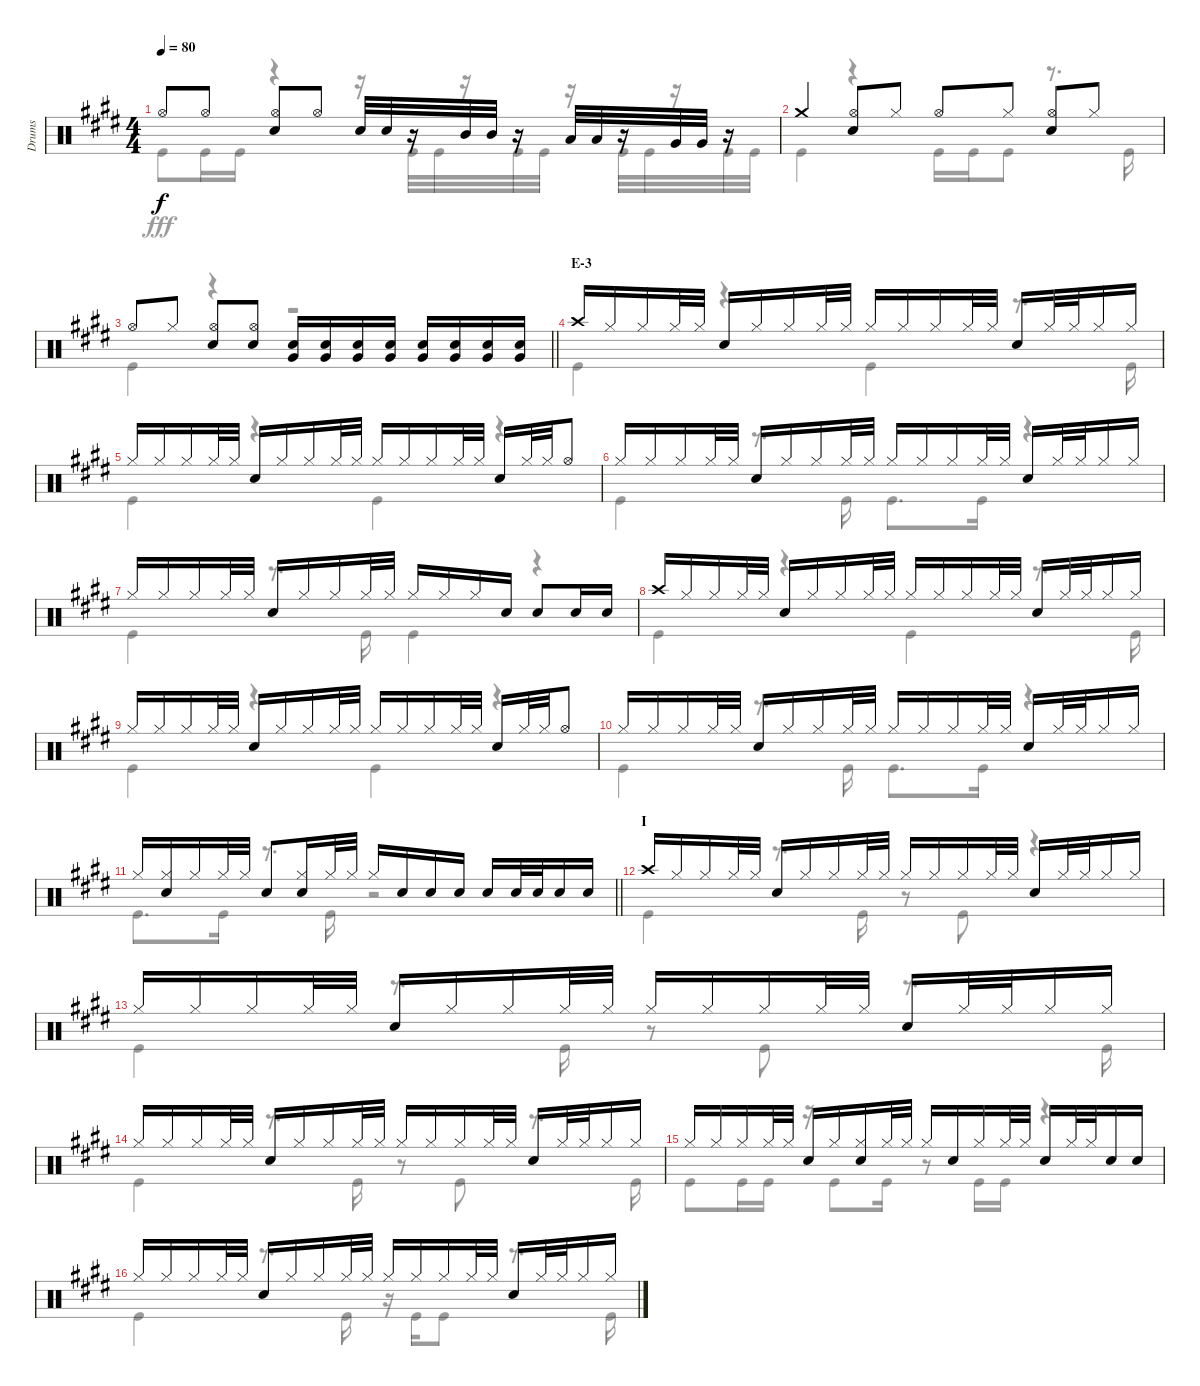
\track ("Drums" "Drums") {instrument percussion}
\staff {score}
\articulation defaults
\voice
\ts (4 4)
\tempo 80
\clef neutral
\ks e "Hi-Hat (open)".8{dy f} "Hi-Hat (open)".8
("Hi-Hat (open)" "Snare (hit) 2").8 "Hi-Hat (open)".8 "Snare (hit) 2".32 "Snare (hit) 2".32 r.16 "Mid Tom (hit)".32 "Mid Tom (hit)".32 r.16 "Low Tom (hit)".32 "Low Tom (hit)".32 r.16 "Very Low Tom (hit)".32 "Very Low Tom (hit)".32 r.16 |
"Crash medium (hit)".4 ("Hi-Hat (open)" "Snare (hit) 2").8 "Hi-Hat (closed)".8 "Hi-Hat (open)".8 "Hi-Hat (closed)".8 ("Hi-Hat (open)" "Snare (hit) 2").8 "Hi-Hat (closed)".8 |
\barLineRight lightlight "Hi-Hat (open)".8 "Hi-Hat (closed)".8
("Hi-Hat (open)" "Snare (hit) 2").8 ("Hi-Hat (open)" "Snare (hit) 2").8 ("Snare (hit) 2" "Very Low Tom (hit)").16 ("Snare (hit) 2" "Very Low Tom (hit)").16 ("Snare (hit) 2" "Very Low Tom (hit)").16 ("Snare (hit) 2" "Very Low Tom (hit)").16 ("Snare (hit) 2" "Very Low Tom (hit)").16 ("Snare (hit) 2" "Very Low Tom (hit)").16 ("Snare (hit) 2" "Very Low Tom (hit)").16 ("Snare (hit) 2" "Very Low Tom (hit)").16 |
\section ("" "E-3")
"Crash high (hit)".16 "Hi-Hat (closed)".16 "Hi-Hat (closed)".16 "Hi-Hat (closed)".32 "Hi-Hat (closed)".32 "Snare (hit) 2".16 "Hi-Hat (closed)".16 "Hi-Hat (closed)".16 "Hi-Hat (closed)".32 "Hi-Hat (closed)".32 "Hi-Hat (closed)".16 "Hi-Hat (closed)".16 "Hi-Hat (closed)".16 "Hi-Hat (closed)".32 "Hi-Hat (closed)".32 "Snare (hit) 2".16 "Hi-Hat (closed)".32 "Hi-Hat (closed)".32 "Hi-Hat (closed)".16 "Hi-Hat (closed)".16 |
"Hi-Hat (closed)".16 "Hi-Hat (closed)".16 "Hi-Hat (closed)".16 "Hi-Hat (closed)".32 "Hi-Hat (closed)".32 "Snare (hit) 2".16 "Hi-Hat (closed)".16 "Hi-Hat (closed)".16 "Hi-Hat (closed)".32 "Hi-Hat (closed)".32 "Hi-Hat (closed)".16 "Hi-Hat (closed)".16 "Hi-Hat (closed)".16 "Hi-Hat (closed)".32 "Hi-Hat (closed)".32 "Snare (hit) 2".16 "Hi-Hat (closed)".32 "Hi-Hat (closed)".32 "Hi-Hat (open)".8 |
"Hi-Hat (closed)".16 "Hi-Hat (closed)".16 "Hi-Hat (closed)".16 "Hi-Hat (closed)".32 "Hi-Hat (closed)".32 "Snare (hit) 2".16 "Hi-Hat (closed)".16 "Hi-Hat (closed)".16 "Hi-Hat (closed)".32 "Hi-Hat (closed)".32 "Hi-Hat (closed)".16 "Hi-Hat (closed)".16 "Hi-Hat (closed)".16 "Hi-Hat (closed)".32 "Hi-Hat (closed)".32 "Snare (hit) 2".16 "Hi-Hat (closed)".32 "Hi-Hat (closed)".32 "Hi-Hat (closed)".16 "Hi-Hat (closed)".16 |
"Hi-Hat (closed)".16 "Hi-Hat (closed)".16 "Hi-Hat (closed)".16 "Hi-Hat (closed)".32 "Hi-Hat (closed)".32 "Snare (hit) 2".16 "Hi-Hat (closed)".16 "Hi-Hat (closed)".16 "Hi-Hat (closed)".32 "Hi-Hat (closed)".32 "Hi-Hat (closed)".16 "Hi-Hat (closed)".16 "Hi-Hat (closed)".16 "Snare (hit) 2".16 "Snare (hit) 2".8 "Snare (hit) 2".16 "Snare (hit) 2".16 |
"Crash high (hit)".16 "Hi-Hat (closed)".16 "Hi-Hat (closed)".16 "Hi-Hat (closed)".32 "Hi-Hat (closed)".32 "Snare (hit) 2".16 "Hi-Hat (closed)".16 "Hi-Hat (closed)".16 "Hi-Hat (closed)".32 "Hi-Hat (closed)".32 "Hi-Hat (closed)".16 "Hi-Hat (closed)".16 "Hi-Hat (closed)".16 "Hi-Hat (closed)".32 "Hi-Hat (closed)".32 "Snare (hit) 2".16 "Hi-Hat (closed)".32 "Hi-Hat (closed)".32 "Hi-Hat (closed)".16 "Hi-Hat (closed)".16 |
"Hi-Hat (closed)".16 "Hi-Hat (closed)".16 "Hi-Hat (closed)".16 "Hi-Hat (closed)".32 "Hi-Hat (closed)".32 "Snare (hit) 2".16 "Hi-Hat (closed)".16 "Hi-Hat (closed)".16 "Hi-Hat (closed)".32 "Hi-Hat (closed)".32 "Hi-Hat (closed)".16 "Hi-Hat (closed)".16 "Hi-Hat (closed)".16 "Hi-Hat (closed)".32 "Hi-Hat (closed)".32 "Snare (hit) 2".16 "Hi-Hat (closed)".32 "Hi-Hat (closed)".32 "Hi-Hat (open)".8 |
"Hi-Hat (closed)".16 "Hi-Hat (closed)".16 "Hi-Hat (closed)".16 "Hi-Hat (closed)".32 "Hi-Hat (closed)".32 "Snare (hit) 2".16 "Hi-Hat (closed)".16 "Hi-Hat (closed)".16 "Hi-Hat (closed)".32 "Hi-Hat (closed)".32 "Hi-Hat (closed)".16 "Hi-Hat (closed)".16 "Hi-Hat (closed)".16 "Hi-Hat (closed)".32 "Hi-Hat (closed)".32 "Snare (hit) 2".16 "Hi-Hat (closed)".32 "Hi-Hat (closed)".32 "Hi-Hat (closed)".16 "Hi-Hat (closed)".16 |
\barLineRight lightlight "Hi-Hat (closed)".16
("Hi-Hat (closed)" "Snare (hit) 2").16 "Hi-Hat (closed)".16 "Hi-Hat (closed)".32 "Hi-Hat (closed)".32 "Snare (hit) 2".8 ("Hi-Hat (closed)" "Snare (hit) 2").16 "Hi-Hat (closed)".32 "Hi-Hat (closed)".32 "Hi-Hat (closed)".16 "Snare (hit) 2".16 "Snare (hit) 2".16 "Snare (hit) 2".16 "Snare (hit) 2".16 "Snare (hit) 2".32 "Snare (hit) 2".32 "Snare (hit) 2".16 "Snare (hit) 2".16 |
\section ("" "I")
"Crash high (hit)".16 "Hi-Hat (closed)".16 "Hi-Hat (closed)".16 "Hi-Hat (closed)".32 "Hi-Hat (closed)".32 "Snare (hit) 2".16 "Hi-Hat (closed)".16 "Hi-Hat (closed)".16 "Hi-Hat (closed)".32 "Hi-Hat (closed)".32 "Hi-Hat (closed)".16 "Hi-Hat (closed)".16 "Hi-Hat (closed)".16 "Hi-Hat (closed)".32 "Hi-Hat (closed)".32 "Snare (hit) 2".16 "Hi-Hat (closed)".32 "Hi-Hat (closed)".32 "Hi-Hat (closed)".16 "Hi-Hat (closed)".16 |
"Hi-Hat (closed)".16 "Hi-Hat (closed)".16 "Hi-Hat (closed)".16 "Hi-Hat (closed)".32 "Hi-Hat (closed)".32 "Snare (hit) 2".16 "Hi-Hat (closed)".16 "Hi-Hat (closed)".16 "Hi-Hat (closed)".32 "Hi-Hat (closed)".32 "Hi-Hat (closed)".16 "Hi-Hat (closed)".16 "Hi-Hat (closed)".16 "Hi-Hat (closed)".32 "Hi-Hat (closed)".32 "Snare (hit) 2".16 "Hi-Hat (closed)".32 "Hi-Hat (closed)".32 "Hi-Hat (closed)".16 "Hi-Hat (closed)".16 |
"Hi-Hat (closed)".16 "Hi-Hat (closed)".16 "Hi-Hat (closed)".16 "Hi-Hat (closed)".32 "Hi-Hat (closed)".32 "Snare (hit) 2".16 "Hi-Hat (closed)".16 "Hi-Hat (closed)".16 "Hi-Hat (closed)".32 "Hi-Hat (closed)".32 "Hi-Hat (closed)".16 "Hi-Hat (closed)".16 "Hi-Hat (closed)".16 "Hi-Hat (closed)".32 "Hi-Hat (closed)".32 "Snare (hit) 2".16 "Hi-Hat (closed)".32 "Hi-Hat (closed)".32 "Hi-Hat (closed)".16 "Hi-Hat (closed)".16 |
"Hi-Hat (closed)".16 "Hi-Hat (closed)".16 "Hi-Hat (closed)".16 "Hi-Hat (closed)".32 "Hi-Hat (closed)".32 "Snare (hit) 2".16 "Hi-Hat (closed)".16 ("Hi-Hat (closed)" "Snare (hit) 2").16 "Hi-Hat (closed)".32 "Hi-Hat (closed)".32 "Hi-Hat (closed)".16 "Snare (hit) 2".16 "Hi-Hat (closed)".16 "Hi-Hat (closed)".32 "Hi-Hat (closed)".32 "Snare (hit) 2".16 "Hi-Hat (closed)".32 "Hi-Hat (closed)".32 "Snare (hit) 2".16 "Snare (hit) 2".16 |
"Hi-Hat (closed)".16 "Hi-Hat (closed)".16 "Hi-Hat (closed)".16 "Hi-Hat (closed)".32 "Hi-Hat (closed)".32 "Snare (hit) 2".16 "Hi-Hat (closed)".16 "Hi-Hat (closed)".16 "Hi-Hat (closed)".32 "Hi-Hat (closed)".32 "Hi-Hat (closed)".16 "Hi-Hat (closed)".16 "Hi-Hat (closed)".16 "Hi-Hat (closed)".32 "Hi-Hat (closed)".32 "Snare (hit) 2".16 "Hi-Hat (closed)".32 "Hi-Hat (closed)".32 "Hi-Hat (closed)".16 "Hi-Hat (closed)".16
\voice
\clef neutral
\ottava regular
\simile none
\ks e "Kick (hit)".8{dy fff} "Kick (hit)".16 "Kick (hit)".16
r.4 r.16 "Kick (hit)".32 "Kick (hit)".32 r.16 "Kick (hit)".32 "Kick (hit)".32 r.16 "Kick (hit)".32 "Kick (hit)".32 r.16 "Kick (hit)".32 "Kick (hit)".32 |
"Kick (hit)".4 r.4 "Kick (hit)".16 "Kick (hit)".16 "Kick (hit)".8 r.8{d} "Kick (hit)".16 |
\barLineRight lightlight "Kick (hit)".4
r.4 r.2 |
"Kick (hit)".4 r.4 "Kick (hit)".4 r.8{d} "Kick (hit)".16 |
"Kick (hit)".4 r.4 "Kick (hit)".4 r.4 |
"Kick (hit)".4 r.8{d} "Kick (hit)".16 "Kick (hit)".8{d} "Kick (hit)".16 r.4 |
"Kick (hit)".4 r.8{d} "Kick (hit)".16 "Kick (hit)".4 r.4 |
"Kick (hit)".4 r.4 "Kick (hit)".4 r.8{d} "Kick (hit)".16 |
"Kick (hit)".4 r.4 "Kick (hit)".4 r.4 |
"Kick (hit)".4 r.8{d} "Kick (hit)".16 "Kick (hit)".8{d} "Kick (hit)".16 r.4 |
\barLineRight lightlight "Kick (hit)".8{d} "Kick (hit)".16
r.8{d} "Kick (hit)".16 r.2 |
"Kick (hit)".4 r.8{d} "Kick (hit)".16 r.8 "Kick (hit)".8 r.4 |
"Kick (hit)".4 r.8{d} "Kick (hit)".16 r.8 "Kick (hit)".8 r.8{d} "Kick (hit)".16 |
"Kick (hit)".4 r.8{d} "Kick (hit)".16 r.8 "Kick (hit)".8 r.8{d} "Kick (hit)".16 |
"Kick (hit)".8 "Kick (hit)".16 "Kick (hit)".16 r.16 "Kick (hit)".8 "Kick (hit)".16 r.8 "Kick (hit)".16 "Kick (hit)".16 r.4 |
"Kick (hit)".4 r.8{d} "Kick (hit)".16 r.16 "Kick (hit)".16 "Kick (hit)".8 r.8{d} "Kick (hit)".16
